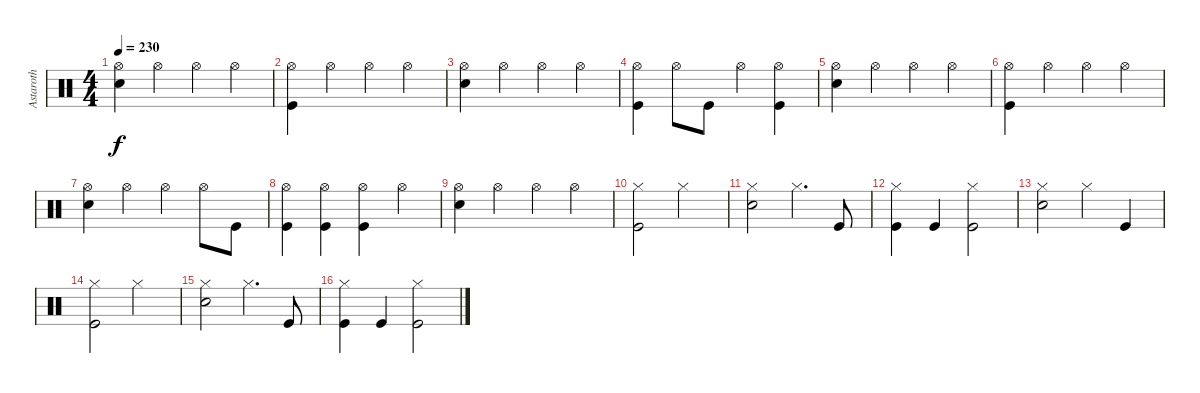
\track ("Astaroth" "Astaroth") {instrument percussion}
\staff {score}
\articulation defaults
\ts (4 4)
\tempo 230
\clef neutral
\ks c
("Electric Snare (hit)" "Hi-Hat (open)").4{dy f} "Hi-Hat (open)".4 "Hi-Hat (open)".4 "Hi-Hat (open)".4 |
("Kick (hit)" "Hi-Hat (open)").4 "Hi-Hat (open)".4 "Hi-Hat (open)".4 "Hi-Hat (open)".4 |
("Electric Snare (hit)" "Hi-Hat (open)").4 "Hi-Hat (open)".4 "Hi-Hat (open)".4 "Hi-Hat (open)".4 |
("Kick (hit)" "Hi-Hat (open)").4 "Hi-Hat (open)".8 "Kick (hit)".8 "Hi-Hat (open)".4 ("Kick (hit)" "Hi-Hat (open)").4 |
("Electric Snare (hit)" "Hi-Hat (open)").4 "Hi-Hat (open)".4 "Hi-Hat (open)".4 "Hi-Hat (open)".4 |
("Kick (hit)" "Hi-Hat (open)").4 "Hi-Hat (open)".4 "Hi-Hat (open)".4 "Hi-Hat (open)".4 |
("Electric Snare (hit)" "Hi-Hat (open)").4 "Hi-Hat (open)".4 "Hi-Hat (open)".4 "Hi-Hat (open)".8 "Kick (hit)".8 |
("Kick (hit)" "Hi-Hat (open)").4 ("Kick (hit)" "Hi-Hat (open)").4 ("Kick (hit)" "Hi-Hat (open)").4 "Hi-Hat (open)".4 |
("Electric Snare (hit)" "Hi-Hat (open)").4 "Hi-Hat (open)".4 "Hi-Hat (open)".4 "Hi-Hat (open)".4 |
("Kick (hit)" "Hi-Hat (closed)").2 "Hi-Hat (closed)".2 |
("Electric Snare (hit)" "Hi-Hat (closed)").2 "Hi-Hat (closed)".4{d} "Kick (hit)".8 |
("Kick (hit)" "Hi-Hat (closed)").4 "Kick (hit)".4 ("Kick (hit)" "Hi-Hat (closed)").2 |
("Electric Snare (hit)" "Hi-Hat (closed)").2 "Hi-Hat (closed)".4 "Kick (hit)".4 |
("Kick (hit)" "Hi-Hat (closed)").2 "Hi-Hat (closed)".2 |
("Electric Snare (hit)" "Hi-Hat (closed)").2 "Hi-Hat (closed)".4{d} "Kick (hit)".8 |
("Kick (hit)" "Hi-Hat (closed)").4 "Kick (hit)".4 ("Kick (hit)" "Hi-Hat (closed)").2
